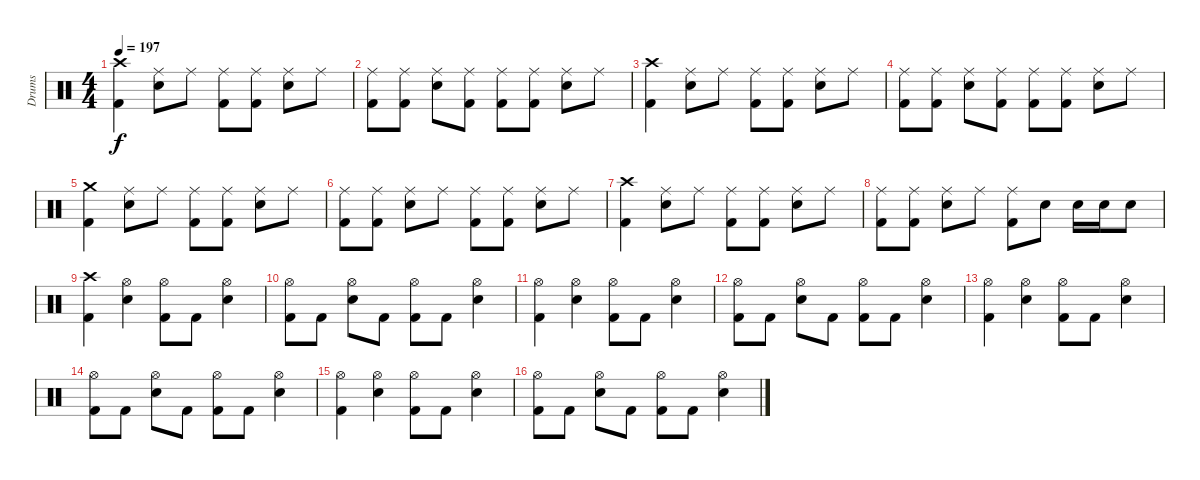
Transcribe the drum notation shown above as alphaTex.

\track ("Drums" "Drums") {instrument percussion}
\staff {score}
\articulation defaults
\ts (4 4)
\tempo 197
\clef neutral
\ks c
("Crash high (hit)" "Kick (hit) 2").4{dy f} ("Ride (middle)" "Electric Snare (hit)").8 "Ride (middle)".8 ("Ride (middle)" "Kick (hit) 2").8 ("Ride (middle)" "Kick (hit) 2").8 ("Ride (middle)" "Electric Snare (hit)").8 "Ride (middle)".8 |
("Ride (middle)" "Kick (hit) 2").8 ("Ride (middle)" "Kick (hit) 2").8 ("Ride (middle)" "Electric Snare (hit)").8 ("Ride (middle)" "Kick (hit) 2").8 ("Ride (middle)" "Kick (hit) 2").8 ("Ride (middle)" "Kick (hit) 2").8 ("Ride (middle)" "Electric Snare (hit)").8 "Ride (middle)".8 |
("Crash high (hit)" "Kick (hit) 2").4 ("Ride (middle)" "Electric Snare (hit)").8 "Ride (middle)".8 ("Ride (middle)" "Kick (hit) 2").8 ("Ride (middle)" "Kick (hit) 2").8 ("Ride (middle)" "Electric Snare (hit)").8 "Ride (middle)".8 |
("Ride (middle)" "Kick (hit) 2").8 ("Ride (middle)" "Kick (hit) 2").8 ("Ride (middle)" "Electric Snare (hit)").8 ("Ride (middle)" "Kick (hit) 2").8 ("Ride (middle)" "Kick (hit) 2").8 ("Ride (middle)" "Kick (hit) 2").8 ("Ride (middle)" "Electric Snare (hit)").8 "Ride (middle)".8 |
("Crash medium (hit)" "Kick (hit) 2").4 ("Ride (middle)" "Electric Snare (hit)").8 "Ride (middle)".8 ("Ride (middle)" "Kick (hit) 2").8 ("Ride (middle)" "Kick (hit) 2").8 ("Ride (middle)" "Electric Snare (hit)").8 "Ride (middle)".8 |
("Ride (middle)" "Kick (hit) 2").8 ("Ride (middle)" "Kick (hit) 2").8 ("Ride (middle)" "Electric Snare (hit)").8 "Ride (middle)".8 ("Ride (middle)" "Kick (hit) 2").8 ("Ride (middle)" "Kick (hit) 2").8 ("Ride (middle)" "Electric Snare (hit)").8 "Ride (middle)".8 |
("Crash high (hit)" "Kick (hit) 2").4 ("Ride (middle)" "Electric Snare (hit)").8 "Ride (middle)".8 ("Ride (middle)" "Kick (hit) 2").8 ("Ride (middle)" "Kick (hit) 2").8 ("Ride (middle)" "Electric Snare (hit)").8 "Ride (middle)".8 |
("Ride (middle)" "Kick (hit) 2").8 ("Ride (middle)" "Kick (hit) 2").8 ("Ride (middle)" "Electric Snare (hit)").8 "Ride (middle)".8 ("Ride (middle)" "Kick (hit) 2").8 "Electric Snare (hit)".8 "Electric Snare (hit)".16 "Electric Snare (hit)".16 "Electric Snare (hit)".8 |
("Crash high (hit)" "Kick (hit) 2").4 ("Hi-Hat (open)" "Electric Snare (hit)").4 ("Hi-Hat (open)" "Kick (hit) 2").8 "Kick (hit) 2".8 ("Hi-Hat (open)" "Electric Snare (hit)").4 |
("Hi-Hat (open)" "Kick (hit) 2").8 "Kick (hit) 2".8 ("Hi-Hat (open)" "Electric Snare (hit)").8 "Kick (hit) 2".8 ("Hi-Hat (open)" "Kick (hit) 2").8 "Kick (hit) 2".8 ("Hi-Hat (open)" "Electric Snare (hit)").4 |
("Hi-Hat (open)" "Kick (hit) 2").4 ("Hi-Hat (open)" "Electric Snare (hit)").4 ("Hi-Hat (open)" "Kick (hit) 2").8 "Kick (hit) 2".8 ("Hi-Hat (open)" "Electric Snare (hit)").4 |
("Hi-Hat (open)" "Kick (hit) 2").8 "Kick (hit) 2".8 ("Hi-Hat (open)" "Electric Snare (hit)").8 "Kick (hit) 2".8 ("Hi-Hat (open)" "Kick (hit) 2").8 "Kick (hit) 2".8 ("Hi-Hat (open)" "Electric Snare (hit)").4 |
("Hi-Hat (open)" "Kick (hit) 2").4 ("Hi-Hat (open)" "Electric Snare (hit)").4 ("Hi-Hat (open)" "Kick (hit) 2").8 "Kick (hit) 2".8 ("Hi-Hat (open)" "Electric Snare (hit)").4 |
("Hi-Hat (open)" "Kick (hit) 2").8 "Kick (hit) 2".8 ("Hi-Hat (open)" "Electric Snare (hit)").8 "Kick (hit) 2".8 ("Hi-Hat (open)" "Kick (hit) 2").8 "Kick (hit) 2".8 ("Hi-Hat (open)" "Electric Snare (hit)").4 |
("Hi-Hat (open)" "Kick (hit) 2").4 ("Hi-Hat (open)" "Electric Snare (hit)").4 ("Hi-Hat (open)" "Kick (hit) 2").8 "Kick (hit) 2".8 ("Hi-Hat (open)" "Electric Snare (hit)").4 |
("Hi-Hat (open)" "Kick (hit) 2").8 "Kick (hit) 2".8 ("Hi-Hat (open)" "Electric Snare (hit)").8 "Kick (hit) 2".8 ("Hi-Hat (open)" "Kick (hit) 2").8 "Kick (hit) 2".8 ("Hi-Hat (open)" "Electric Snare (hit)").4
